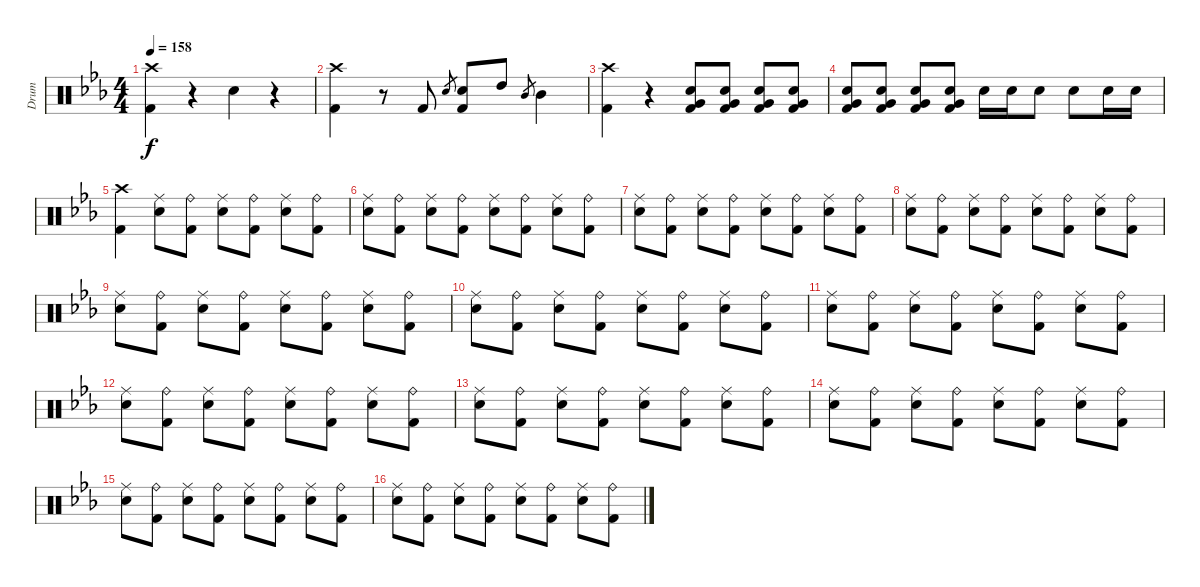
\track ("Drum" "Drum") {instrument percussion}
\staff {score}
\articulation defaults
\ts (4 4)
\tempo 158
\clef neutral
\ks eb
("Crash high (hit)" "Kick (hit) 2").4{dy f} r.4 "Electric Snare (hit)".4 r.4 |
("Crash high (hit)" "Kick (hit) 2").4 r.8 "Kick (hit) 2".8 "Electric Snare (hit)".8{gr} ("Electric Snare (hit)" "Kick (hit) 2").8 "High Tom (hit)".8 "Mid Tom (hit)".8{gr} "Mid Tom (hit)".4 |
("Crash high (hit)" "Kick (hit) 2").4 r.4 ("Electric Snare (hit)" "Very Low Tom (hit)" "Kick (hit) 2").8 ("Electric Snare (hit)" "Very Low Tom (hit)" "Kick (hit) 2").8 ("Electric Snare (hit)" "Very Low Tom (hit)" "Kick (hit) 2").8 ("Electric Snare (hit)" "Very Low Tom (hit)" "Kick (hit) 2").8 |
("Electric Snare (hit)" "Very Low Tom (hit)" "Kick (hit) 2").8 ("Electric Snare (hit)" "Very Low Tom (hit)" "Kick (hit) 2").8 ("Electric Snare (hit)" "Very Low Tom (hit)" "Kick (hit) 2").8 ("Electric Snare (hit)" "Very Low Tom (hit)" "Kick (hit) 2").8 "Electric Snare (hit)".16 "Electric Snare (hit)".16 "Electric Snare (hit)".8 "Electric Snare (hit)".8 "Electric Snare (hit)".16 "Electric Snare (hit)".16 |
("Crash high (hit)" "Kick (hit) 2").4 ("Ride (middle)" "Electric Snare (hit)").8 ("Ride (bell)" "Kick (hit) 2").8 ("Ride (middle)" "Electric Snare (hit)").8 ("Ride (bell)" "Kick (hit) 2").8 ("Ride (middle)" "Electric Snare (hit)").8 ("Ride (bell)" "Kick (hit) 2").8 |
("Ride (middle)" "Electric Snare (hit)").8 ("Ride (bell)" "Kick (hit) 2").8 ("Ride (middle)" "Electric Snare (hit)").8 ("Ride (bell)" "Kick (hit) 2").8 ("Ride (middle)" "Electric Snare (hit)").8 ("Ride (bell)" "Kick (hit) 2").8 ("Ride (middle)" "Electric Snare (hit)").8 ("Ride (bell)" "Kick (hit) 2").8 |
("Ride (middle)" "Electric Snare (hit)").8 ("Ride (bell)" "Kick (hit) 2").8 ("Ride (middle)" "Electric Snare (hit)").8 ("Ride (bell)" "Kick (hit) 2").8 ("Ride (middle)" "Electric Snare (hit)").8 ("Ride (bell)" "Kick (hit) 2").8 ("Ride (middle)" "Electric Snare (hit)").8 ("Ride (bell)" "Kick (hit) 2").8 |
("Ride (middle)" "Electric Snare (hit)").8 ("Ride (bell)" "Kick (hit) 2").8 ("Ride (middle)" "Electric Snare (hit)").8 ("Ride (bell)" "Kick (hit) 2").8 ("Ride (middle)" "Electric Snare (hit)").8 ("Ride (bell)" "Kick (hit) 2").8 ("Ride (middle)" "Electric Snare (hit)").8 ("Ride (bell)" "Kick (hit) 2").8 |
("Ride (middle)" "Electric Snare (hit)").8 ("Ride (bell)" "Kick (hit) 2").8 ("Ride (middle)" "Electric Snare (hit)").8 ("Ride (bell)" "Kick (hit) 2").8 ("Ride (middle)" "Electric Snare (hit)").8 ("Ride (bell)" "Kick (hit) 2").8 ("Ride (middle)" "Electric Snare (hit)").8 ("Ride (bell)" "Kick (hit) 2").8 |
("Ride (middle)" "Electric Snare (hit)").8 ("Ride (bell)" "Kick (hit) 2").8 ("Ride (middle)" "Electric Snare (hit)").8 ("Ride (bell)" "Kick (hit) 2").8 ("Ride (middle)" "Electric Snare (hit)").8 ("Ride (bell)" "Kick (hit) 2").8 ("Ride (middle)" "Electric Snare (hit)").8 ("Ride (bell)" "Kick (hit) 2").8 |
("Ride (middle)" "Electric Snare (hit)").8 ("Ride (bell)" "Kick (hit) 2").8 ("Ride (middle)" "Electric Snare (hit)").8 ("Ride (bell)" "Kick (hit) 2").8 ("Ride (middle)" "Electric Snare (hit)").8 ("Ride (bell)" "Kick (hit) 2").8 ("Ride (middle)" "Electric Snare (hit)").8 ("Ride (bell)" "Kick (hit) 2").8 |
("Ride (middle)" "Electric Snare (hit)").8 ("Ride (bell)" "Kick (hit) 2").8 ("Ride (middle)" "Electric Snare (hit)").8 ("Ride (bell)" "Kick (hit) 2").8 ("Ride (middle)" "Electric Snare (hit)").8 ("Ride (bell)" "Kick (hit) 2").8 ("Ride (middle)" "Electric Snare (hit)").8 ("Ride (bell)" "Kick (hit) 2").8 |
("Ride (middle)" "Electric Snare (hit)").8 ("Ride (bell)" "Kick (hit) 2").8 ("Ride (middle)" "Electric Snare (hit)").8 ("Ride (bell)" "Kick (hit) 2").8 ("Ride (middle)" "Electric Snare (hit)").8 ("Ride (bell)" "Kick (hit) 2").8 ("Ride (middle)" "Electric Snare (hit)").8 ("Ride (bell)" "Kick (hit) 2").8 |
("Ride (middle)" "Electric Snare (hit)").8 ("Ride (bell)" "Kick (hit) 2").8 ("Ride (middle)" "Electric Snare (hit)").8 ("Ride (bell)" "Kick (hit) 2").8 ("Ride (middle)" "Electric Snare (hit)").8 ("Ride (bell)" "Kick (hit) 2").8 ("Ride (middle)" "Electric Snare (hit)").8 ("Ride (bell)" "Kick (hit) 2").8 |
("Ride (middle)" "Electric Snare (hit)").8 ("Ride (bell)" "Kick (hit) 2").8 ("Ride (middle)" "Electric Snare (hit)").8 ("Ride (bell)" "Kick (hit) 2").8 ("Ride (middle)" "Electric Snare (hit)").8 ("Ride (bell)" "Kick (hit) 2").8 ("Ride (middle)" "Electric Snare (hit)").8 ("Ride (bell)" "Kick (hit) 2").8 |
("Ride (middle)" "Electric Snare (hit)").8 ("Ride (bell)" "Kick (hit) 2").8 ("Ride (middle)" "Electric Snare (hit)").8 ("Ride (bell)" "Kick (hit) 2").8 ("Ride (middle)" "Electric Snare (hit)").8 ("Ride (bell)" "Kick (hit) 2").8 ("Ride (middle)" "Electric Snare (hit)").8 ("Ride (bell)" "Kick (hit) 2").8
